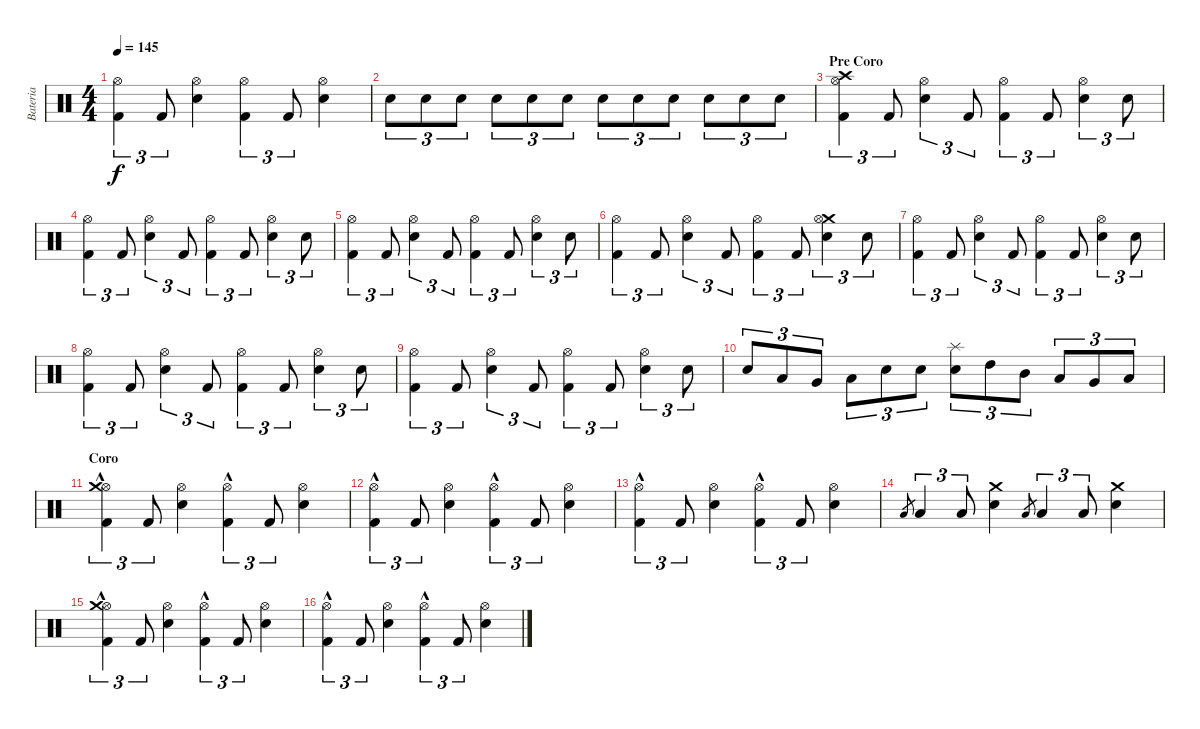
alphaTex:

\track ("Bateria" "Bateria") {instrument percussion}
\staff {score}
\articulation defaults
\ts (4 4)
\tempo 145
\clef neutral
\ks c
("Hi-Hat (open)" "Kick (hit) 2").4{tu (3 2) dy f} "Kick (hit) 2".8{tu (3 2)} ("Hi-Hat (open)" "Snare (hit) 2").4 ("Hi-Hat (open)" "Kick (hit) 2").4{tu (3 2)} "Kick (hit) 2".8{tu (3 2)} ("Hi-Hat (open)" "Snare (hit) 2").4 |
"Snare (hit) 2".8{tu (3 2)} "Snare (hit) 2".8{tu (3 2)} "Snare (hit) 2".8{tu (3 2)} "Snare (hit) 2".8{tu (3 2)} "Snare (hit) 2".8{tu (3 2)} "Snare (hit) 2".8{tu (3 2)} "Snare (hit) 2".8{tu (3 2)} "Snare (hit) 2".8{tu (3 2)} "Snare (hit) 2".8{tu (3 2)} "Snare (hit) 2".8{tu (3 2)} "Snare (hit) 2".8{tu (3 2)} "Snare (hit) 2".8{tu (3 2)} |
\section ("" "Pre Coro")
("Crash high (hit)" "Hi-Hat (open)" "Kick (hit) 2").4{tu (3 2)} "Kick (hit) 2".8{tu (3 2)} ("Hi-Hat (open)" "Snare (hit) 2").4{tu (3 2)} "Kick (hit) 2".8{tu (3 2)} ("Hi-Hat (open)" "Kick (hit) 2").4{tu (3 2)} "Kick (hit) 2".8{tu (3 2)} ("Hi-Hat (open)" "Snare (hit) 2").4{tu (3 2)} "Snare (hit) 2".8{tu (3 2)} |
("Hi-Hat (open)" "Kick (hit) 2").4{tu (3 2)} "Kick (hit) 2".8{tu (3 2)} ("Hi-Hat (open)" "Snare (hit) 2").4{tu (3 2)} "Kick (hit) 2".8{tu (3 2)} ("Hi-Hat (open)" "Kick (hit) 2").4{tu (3 2)} "Kick (hit) 2".8{tu (3 2)} ("Hi-Hat (open)" "Snare (hit) 2").4{tu (3 2)} "Snare (hit) 2".8{tu (3 2)} |
("Hi-Hat (open)" "Kick (hit) 2").4{tu (3 2)} "Kick (hit) 2".8{tu (3 2)} ("Hi-Hat (open)" "Snare (hit) 2").4{tu (3 2)} "Kick (hit) 2".8{tu (3 2)} ("Hi-Hat (open)" "Kick (hit) 2").4{tu (3 2)} "Kick (hit) 2".8{tu (3 2)} ("Hi-Hat (open)" "Snare (hit) 2").4{tu (3 2)} "Snare (hit) 2".8{tu (3 2)} |
("Hi-Hat (open)" "Kick (hit) 2").4{tu (3 2)} "Kick (hit) 2".8{tu (3 2)} ("Hi-Hat (open)" "Snare (hit) 2").4{tu (3 2)} "Kick (hit) 2".8{tu (3 2)} ("Hi-Hat (open)" "Kick (hit) 2").4{tu (3 2)} "Kick (hit) 2".8{tu (3 2)} ("Crash medium (hit)" "Hi-Hat (open)" "Snare (hit) 2").4{tu (3 2)} "Snare (hit) 2".8{tu (3 2)} |
("Hi-Hat (open)" "Kick (hit) 2").4{tu (3 2)} "Kick (hit) 2".8{tu (3 2)} ("Hi-Hat (open)" "Snare (hit) 2").4{tu (3 2)} "Kick (hit) 2".8{tu (3 2)} ("Hi-Hat (open)" "Kick (hit) 2").4{tu (3 2)} "Kick (hit) 2".8{tu (3 2)} ("Hi-Hat (open)" "Snare (hit) 2").4{tu (3 2)} "Snare (hit) 2".8{tu (3 2)} |
("Hi-Hat (open)" "Kick (hit) 2").4{tu (3 2)} "Kick (hit) 2".8{tu (3 2)} ("Hi-Hat (open)" "Snare (hit) 2").4{tu (3 2)} "Kick (hit) 2".8{tu (3 2)} ("Hi-Hat (open)" "Kick (hit) 2").4{tu (3 2)} "Kick (hit) 2".8{tu (3 2)} ("Hi-Hat (open)" "Snare (hit) 2").4{tu (3 2)} "Snare (hit) 2".8{tu (3 2)} |
("Hi-Hat (open)" "Kick (hit) 2").4{tu (3 2)} "Kick (hit) 2".8{tu (3 2)} ("Hi-Hat (open)" "Snare (hit) 2").4{tu (3 2)} "Kick (hit) 2".8{tu (3 2)} ("Hi-Hat (open)" "Kick (hit) 2").4{tu (3 2)} "Kick (hit) 2".8{tu (3 2)} ("Hi-Hat (open)" "Snare (hit) 2").4{tu (3 2)} "Snare (hit) 2".8{tu (3 2)} |
"Snare (hit) 2".8{tu (3 2)} "Low Tom (hit)".8{tu (3 2)} "Very Low Tom (hit)".8{tu (3 2)} "Low Floor Tom (hit)".8{tu (3 2)} "Snare (hit) 2".8{tu (3 2)} "Snare (hit) 2".8{tu (3 2)} ("Splash (hit)" "Snare (hit) 2").8{tu (3 2)} "High Tom (hit)".8{tu (3 2)} "Mid Tom (hit)".8{tu (3 2)} "Low Tom (hit)".8{tu (3 2)} "Very Low Tom (hit)".8{tu (3 2)} "Low Floor Tom (hit)".8{tu (3 2)} |
\section ("" "Coro")
("Hi-Hat (open)"{hac} "Crash medium (hit)" "Kick (hit) 2").4{tu (3 2)} "Kick (hit) 2".8{tu (3 2)} ("Hi-Hat (open)" "Snare (hit) 2").4 ("Hi-Hat (open)"{hac} "Kick (hit) 2").4{tu (3 2)} "Kick (hit) 2".8{tu (3 2)} ("Hi-Hat (open)" "Snare (hit) 2").4 |
("Hi-Hat (open)"{hac} "Kick (hit) 2").4{tu (3 2)} "Kick (hit) 2".8{tu (3 2)} ("Hi-Hat (open)" "Snare (hit) 2").4 ("Hi-Hat (open)"{hac} "Kick (hit) 2").4{tu (3 2)} "Kick (hit) 2".8{tu (3 2)} ("Hi-Hat (open)" "Snare (hit) 2").4 |
("Hi-Hat (open)"{hac} "Kick (hit) 2").4{tu (3 2)} "Kick (hit) 2".8{tu (3 2)} ("Hi-Hat (open)" "Snare (hit) 2").4 ("Hi-Hat (open)"{hac} "Kick (hit) 2").4{tu (3 2)} "Kick (hit) 2".8{tu (3 2)} ("Hi-Hat (open)" "Snare (hit) 2").4 |
"Low Tom (hit)".8{gr} "Low Tom (hit)".4{tu (3 2)} "Low Tom (hit)".8{tu (3 2)} ("Crash medium (hit)" "Snare (hit) 2").4 "Low Tom (hit)".8{gr} "Low Tom (hit)".4{tu (3 2)} "Low Tom (hit)".8{tu (3 2)} ("Crash medium (hit)" "Snare (hit) 2").4 |
("Hi-Hat (open)"{hac} "Crash medium (hit)" "Kick (hit) 2").4{tu (3 2)} "Kick (hit) 2".8{tu (3 2)} ("Hi-Hat (open)" "Snare (hit) 2").4 ("Hi-Hat (open)"{hac} "Kick (hit) 2").4{tu (3 2)} "Kick (hit) 2".8{tu (3 2)} ("Hi-Hat (open)" "Snare (hit) 2").4 |
("Hi-Hat (open)"{hac} "Kick (hit) 2").4{tu (3 2)} "Kick (hit) 2".8{tu (3 2)} ("Hi-Hat (open)" "Snare (hit) 2").4 ("Hi-Hat (open)"{hac} "Kick (hit) 2").4{tu (3 2)} "Kick (hit) 2".8{tu (3 2)} ("Hi-Hat (open)" "Snare (hit) 2").4
